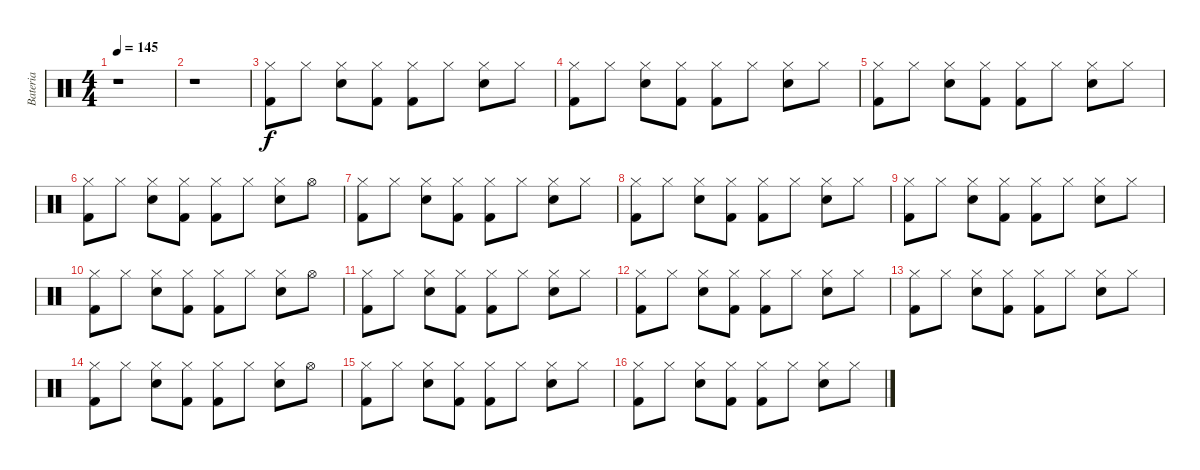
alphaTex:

\track ("Bateria" "Bateria") {instrument percussion}
\staff {score}
\articulation defaults
\ts (4 4)
\tempo 145
\clef neutral
\ks c
r.1{dy f} |
r.1 |
("Hi-Hat (closed)" "Kick (hit) 2").8 "Hi-Hat (closed)".8 ("Hi-Hat (closed)" "Electric Snare (hit)").8 ("Hi-Hat (closed)" "Kick (hit) 2").8 ("Hi-Hat (closed)" "Kick (hit) 2").8 "Hi-Hat (closed)".8 ("Hi-Hat (closed)" "Electric Snare (hit)").8 "Hi-Hat (closed)".8 |
("Hi-Hat (closed)" "Kick (hit) 2").8 "Hi-Hat (closed)".8 ("Hi-Hat (closed)" "Electric Snare (hit)").8 ("Hi-Hat (closed)" "Kick (hit) 2").8 ("Hi-Hat (closed)" "Kick (hit) 2").8 "Hi-Hat (closed)".8 ("Hi-Hat (closed)" "Electric Snare (hit)").8 "Hi-Hat (closed)".8 |
("Hi-Hat (closed)" "Kick (hit) 2").8 "Hi-Hat (closed)".8 ("Hi-Hat (closed)" "Electric Snare (hit)").8 ("Hi-Hat (closed)" "Kick (hit) 2").8 ("Hi-Hat (closed)" "Kick (hit) 2").8 "Hi-Hat (closed)".8 ("Hi-Hat (closed)" "Electric Snare (hit)").8 "Hi-Hat (closed)".8 |
("Hi-Hat (closed)" "Kick (hit) 2").8 "Hi-Hat (closed)".8 ("Hi-Hat (closed)" "Electric Snare (hit)").8 ("Hi-Hat (closed)" "Kick (hit) 2").8 ("Hi-Hat (closed)" "Kick (hit) 2").8 "Hi-Hat (closed)".8 ("Hi-Hat (closed)" "Electric Snare (hit)").8 "Hi-Hat (open)".8 |
("Hi-Hat (closed)" "Kick (hit) 2").8 "Hi-Hat (closed)".8 ("Hi-Hat (closed)" "Electric Snare (hit)").8 ("Hi-Hat (closed)" "Kick (hit) 2").8 ("Hi-Hat (closed)" "Kick (hit) 2").8 "Hi-Hat (closed)".8 ("Hi-Hat (closed)" "Electric Snare (hit)").8 "Hi-Hat (closed)".8 |
("Hi-Hat (closed)" "Kick (hit) 2").8 "Hi-Hat (closed)".8 ("Hi-Hat (closed)" "Electric Snare (hit)").8 ("Hi-Hat (closed)" "Kick (hit) 2").8 ("Hi-Hat (closed)" "Kick (hit) 2").8 "Hi-Hat (closed)".8 ("Hi-Hat (closed)" "Electric Snare (hit)").8 "Hi-Hat (closed)".8 |
("Hi-Hat (closed)" "Kick (hit) 2").8 "Hi-Hat (closed)".8 ("Hi-Hat (closed)" "Electric Snare (hit)").8 ("Hi-Hat (closed)" "Kick (hit) 2").8 ("Hi-Hat (closed)" "Kick (hit) 2").8 "Hi-Hat (closed)".8 ("Hi-Hat (closed)" "Electric Snare (hit)").8 "Hi-Hat (closed)".8 |
("Hi-Hat (closed)" "Kick (hit) 2").8 "Hi-Hat (closed)".8 ("Hi-Hat (closed)" "Electric Snare (hit)").8 ("Hi-Hat (closed)" "Kick (hit) 2").8 ("Hi-Hat (closed)" "Kick (hit) 2").8 "Hi-Hat (closed)".8 ("Hi-Hat (closed)" "Electric Snare (hit)").8 "Hi-Hat (open)".8 |
("Hi-Hat (closed)" "Kick (hit) 2").8 "Hi-Hat (closed)".8 ("Hi-Hat (closed)" "Electric Snare (hit)").8 ("Hi-Hat (closed)" "Kick (hit) 2").8 ("Hi-Hat (closed)" "Kick (hit) 2").8 "Hi-Hat (closed)".8 ("Hi-Hat (closed)" "Electric Snare (hit)").8 "Hi-Hat (closed)".8 |
("Hi-Hat (closed)" "Kick (hit) 2").8 "Hi-Hat (closed)".8 ("Hi-Hat (closed)" "Electric Snare (hit)").8 ("Hi-Hat (closed)" "Kick (hit) 2").8 ("Hi-Hat (closed)" "Kick (hit) 2").8 "Hi-Hat (closed)".8 ("Hi-Hat (closed)" "Electric Snare (hit)").8 "Hi-Hat (closed)".8 |
("Hi-Hat (closed)" "Kick (hit) 2").8 "Hi-Hat (closed)".8 ("Hi-Hat (closed)" "Electric Snare (hit)").8 ("Hi-Hat (closed)" "Kick (hit) 2").8 ("Hi-Hat (closed)" "Kick (hit) 2").8 "Hi-Hat (closed)".8 ("Hi-Hat (closed)" "Electric Snare (hit)").8 "Hi-Hat (closed)".8 |
("Hi-Hat (closed)" "Kick (hit) 2").8 "Hi-Hat (closed)".8 ("Hi-Hat (closed)" "Electric Snare (hit)").8 ("Hi-Hat (closed)" "Kick (hit) 2").8 ("Hi-Hat (closed)" "Kick (hit) 2").8 "Hi-Hat (closed)".8 ("Hi-Hat (closed)" "Electric Snare (hit)").8 "Hi-Hat (open)".8 |
("Hi-Hat (closed)" "Kick (hit) 2").8 "Hi-Hat (closed)".8 ("Hi-Hat (closed)" "Electric Snare (hit)").8 ("Hi-Hat (closed)" "Kick (hit) 2").8 ("Hi-Hat (closed)" "Kick (hit) 2").8 "Hi-Hat (closed)".8 ("Hi-Hat (closed)" "Electric Snare (hit)").8 "Hi-Hat (closed)".8 |
("Hi-Hat (closed)" "Kick (hit) 2").8 "Hi-Hat (closed)".8 ("Hi-Hat (closed)" "Electric Snare (hit)").8 ("Hi-Hat (closed)" "Kick (hit) 2").8 ("Hi-Hat (closed)" "Kick (hit) 2").8 "Hi-Hat (closed)".8 ("Hi-Hat (closed)" "Electric Snare (hit)").8 "Hi-Hat (closed)".8
